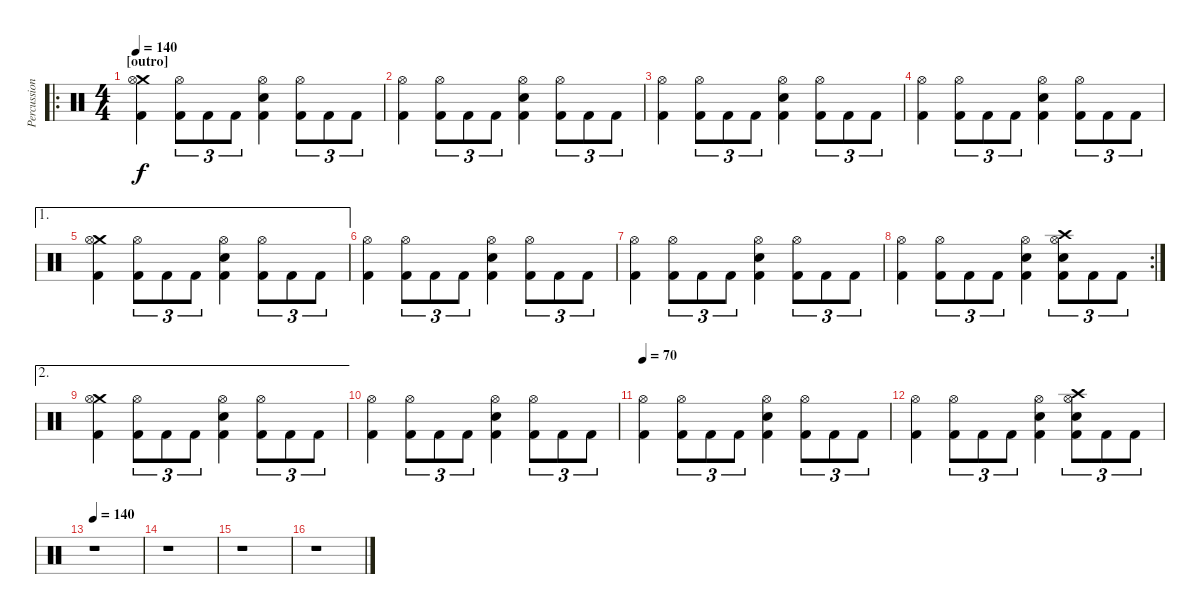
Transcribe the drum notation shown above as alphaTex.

\track ("Percussion" "Percussion") {instrument percussion}
\staff {score}
\articulation defaults
\ro
\ts (4 4)
\section ("" "[outro]")
\tempo 140
\clef neutral
\ks c
("Crash medium (hit)" "Hi-Hat (open)" "Kick (hit) 2").4{dy f} ("Hi-Hat (open)" "Kick (hit) 2").8{tu (3 2)} "Kick (hit) 2".8{tu (3 2)} "Kick (hit) 2".8{tu (3 2)} ("Hi-Hat (open)" "Electric Snare (hit)" "Kick (hit) 2").4 ("Hi-Hat (open)" "Kick (hit) 2").8{tu (3 2)} "Kick (hit) 2".8{tu (3 2)} "Kick (hit) 2".8{tu (3 2)} |
("Hi-Hat (open)" "Kick (hit) 2").4 ("Hi-Hat (open)" "Kick (hit) 2").8{tu (3 2)} "Kick (hit) 2".8{tu (3 2)} "Kick (hit) 2".8{tu (3 2)} ("Hi-Hat (open)" "Electric Snare (hit)" "Kick (hit) 2").4 ("Hi-Hat (open)" "Kick (hit) 2").8{tu (3 2)} "Kick (hit) 2".8{tu (3 2)} "Kick (hit) 2".8{tu (3 2)} |
("Hi-Hat (open)" "Kick (hit) 2").4 ("Hi-Hat (open)" "Kick (hit) 2").8{tu (3 2)} "Kick (hit) 2".8{tu (3 2)} "Kick (hit) 2".8{tu (3 2)} ("Hi-Hat (open)" "Electric Snare (hit)" "Kick (hit) 2").4 ("Hi-Hat (open)" "Kick (hit) 2").8{tu (3 2)} "Kick (hit) 2".8{tu (3 2)} "Kick (hit) 2".8{tu (3 2)} |
("Hi-Hat (open)" "Kick (hit) 2").4 ("Hi-Hat (open)" "Kick (hit) 2").8{tu (3 2)} "Kick (hit) 2".8{tu (3 2)} "Kick (hit) 2".8{tu (3 2)} ("Hi-Hat (open)" "Electric Snare (hit)" "Kick (hit) 2").4 ("Hi-Hat (open)" "Kick (hit) 2").8{tu (3 2)} "Kick (hit) 2".8{tu (3 2)} "Kick (hit) 2".8{tu (3 2)} |
\ae 1
("Crash medium (hit)" "Hi-Hat (open)" "Kick (hit) 2").4 ("Hi-Hat (open)" "Kick (hit) 2").8{tu (3 2)} "Kick (hit) 2".8{tu (3 2)} "Kick (hit) 2".8{tu (3 2)} ("Hi-Hat (open)" "Electric Snare (hit)" "Kick (hit) 2").4 ("Hi-Hat (open)" "Kick (hit) 2").8{tu (3 2)} "Kick (hit) 2".8{tu (3 2)} "Kick (hit) 2".8{tu (3 2)} |
("Hi-Hat (open)" "Kick (hit) 2").4 ("Hi-Hat (open)" "Kick (hit) 2").8{tu (3 2)} "Kick (hit) 2".8{tu (3 2)} "Kick (hit) 2".8{tu (3 2)} ("Hi-Hat (open)" "Electric Snare (hit)" "Kick (hit) 2").4 ("Hi-Hat (open)" "Kick (hit) 2").8{tu (3 2)} "Kick (hit) 2".8{tu (3 2)} "Kick (hit) 2".8{tu (3 2)} |
("Hi-Hat (open)" "Kick (hit) 2").4 ("Hi-Hat (open)" "Kick (hit) 2").8{tu (3 2)} "Kick (hit) 2".8{tu (3 2)} "Kick (hit) 2".8{tu (3 2)} ("Hi-Hat (open)" "Electric Snare (hit)" "Kick (hit) 2").4 ("Hi-Hat (open)" "Kick (hit) 2").8{tu (3 2)} "Kick (hit) 2".8{tu (3 2)} "Kick (hit) 2".8{tu (3 2)} |
\rc 2
("Hi-Hat (open)" "Kick (hit) 2").4 ("Hi-Hat (open)" "Kick (hit) 2").8{tu (3 2)} "Kick (hit) 2".8{tu (3 2)} "Kick (hit) 2".8{tu (3 2)} ("Hi-Hat (open)" "Electric Snare (hit)" "Kick (hit) 2").4 ("Crash high (hit)" "Hi-Hat (open)" "Electric Snare (hit)" "Kick (hit) 2").8{tu (3 2)} "Kick (hit) 2".8{tu (3 2)} "Kick (hit) 2".8{tu (3 2)} |
\ae 2
("Crash medium (hit)" "Hi-Hat (open)" "Kick (hit) 2").4{volume 9} ("Hi-Hat (open)" "Kick (hit) 2").8{tu (3 2)} "Kick (hit) 2".8{tu (3 2)} "Kick (hit) 2".8{tu (3 2)} ("Hi-Hat (open)" "Electric Snare (hit)" "Kick (hit) 2").4 ("Hi-Hat (open)" "Kick (hit) 2").8{tu (3 2)} "Kick (hit) 2".8{tu (3 2)} "Kick (hit) 2".8{tu (3 2)} |
("Hi-Hat (open)" "Kick (hit) 2").4 ("Hi-Hat (open)" "Kick (hit) 2").8{tu (3 2)} "Kick (hit) 2".8{tu (3 2)} "Kick (hit) 2".8{tu (3 2)} ("Hi-Hat (open)" "Electric Snare (hit)" "Kick (hit) 2").4 ("Hi-Hat (open)" "Kick (hit) 2").8{tu (3 2)} "Kick (hit) 2".8{tu (3 2)} "Kick (hit) 2".8{tu (3 2)} |
\tempo 70
("Hi-Hat (open)" "Kick (hit) 2").4{volume 0} ("Hi-Hat (open)" "Kick (hit) 2").8{tu (3 2)} "Kick (hit) 2".8{tu (3 2)} "Kick (hit) 2".8{tu (3 2)} ("Hi-Hat (open)" "Electric Snare (hit)" "Kick (hit) 2").4 ("Hi-Hat (open)" "Kick (hit) 2").8{tu (3 2)} "Kick (hit) 2".8{tu (3 2)} "Kick (hit) 2".8{tu (3 2)} |
("Hi-Hat (open)" "Kick (hit) 2").4 ("Hi-Hat (open)" "Kick (hit) 2").8{tu (3 2)} "Kick (hit) 2".8{tu (3 2)} "Kick (hit) 2".8{tu (3 2)} ("Hi-Hat (open)" "Electric Snare (hit)" "Kick (hit) 2").4 ("Crash high (hit)" "Hi-Hat (open)" "Electric Snare (hit)" "Kick (hit) 2").8{tu (3 2)} "Kick (hit) 2".8{tu (3 2)} "Kick (hit) 2".8{tu (3 2)} |
\tempo 140
r.1 |
r.1 |
r.1 |
r.1
